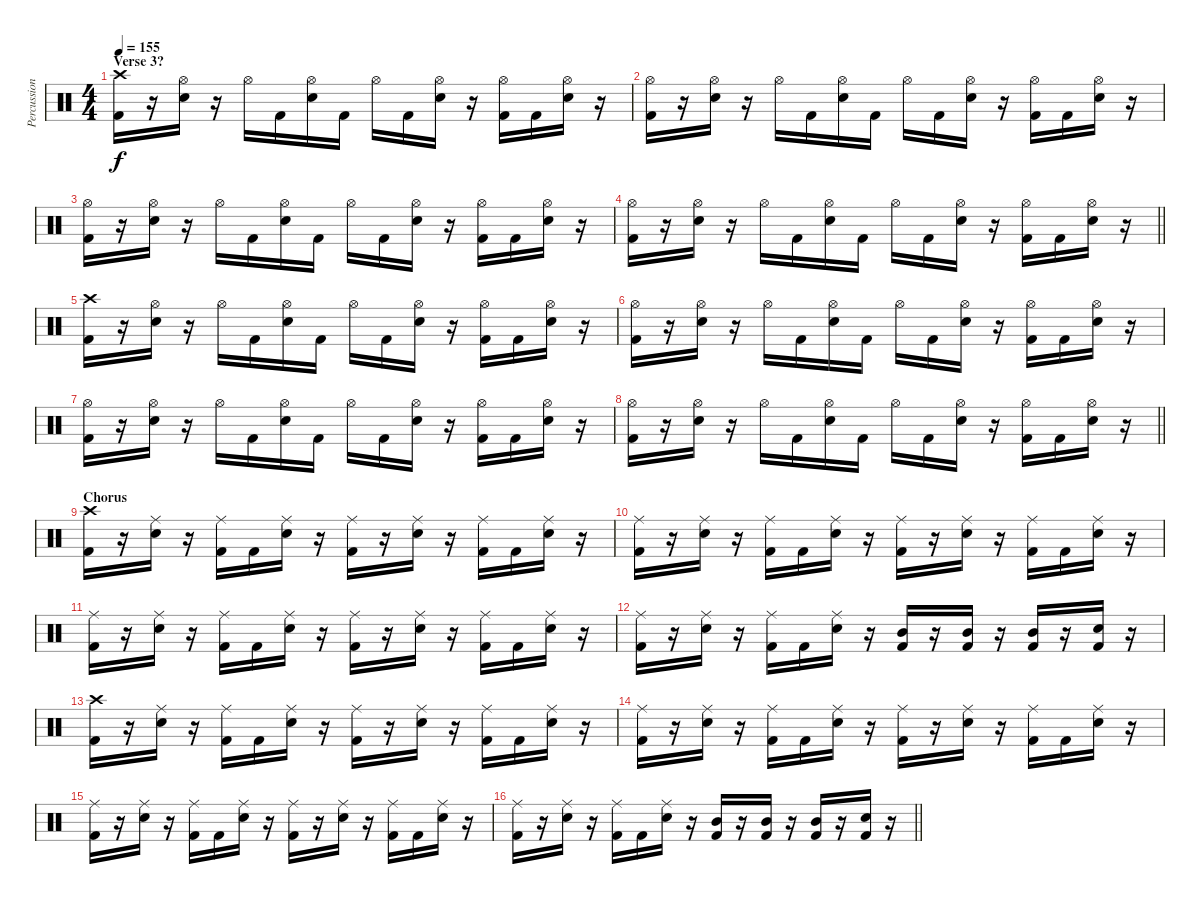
\track ("Percussion" "Percussion") {instrument percussion}
\staff {score}
\articulation defaults
\ts (4 4)
\section ("" "Verse 3?")
\tempo 155
\clef neutral
\ks c
("Crash high (hit)" "Kick (hit) 2").16{dy f} r.16 ("Hi-Hat (open)" "Electric Snare (hit)").16 r.16 "Hi-Hat (open)".16 "Kick (hit) 2".16 ("Hi-Hat (open)" "Electric Snare (hit)").16 "Kick (hit) 2".16 "Hi-Hat (open)".16 "Kick (hit) 2".16 ("Hi-Hat (open)" "Electric Snare (hit)").16 r.16 ("Hi-Hat (open)" "Kick (hit) 2").16 "Kick (hit) 2".16 ("Hi-Hat (open)" "Electric Snare (hit)").16 r.16 |
("Hi-Hat (open)" "Kick (hit) 2").16 r.16 ("Hi-Hat (open)" "Electric Snare (hit)").16 r.16 "Hi-Hat (open)".16 "Kick (hit) 2".16 ("Hi-Hat (open)" "Electric Snare (hit)").16 "Kick (hit) 2".16 "Hi-Hat (open)".16 "Kick (hit) 2".16 ("Hi-Hat (open)" "Electric Snare (hit)").16 r.16 ("Hi-Hat (open)" "Kick (hit) 2").16 "Kick (hit) 2".16 ("Hi-Hat (open)" "Electric Snare (hit)").16 r.16 |
("Hi-Hat (open)" "Kick (hit) 2").16 r.16 ("Hi-Hat (open)" "Electric Snare (hit)").16 r.16 "Hi-Hat (open)".16 "Kick (hit) 2".16 ("Hi-Hat (open)" "Electric Snare (hit)").16 "Kick (hit) 2".16 "Hi-Hat (open)".16 "Kick (hit) 2".16 ("Hi-Hat (open)" "Electric Snare (hit)").16 r.16 ("Hi-Hat (open)" "Kick (hit) 2").16 "Kick (hit) 2".16 ("Hi-Hat (open)" "Electric Snare (hit)").16 r.16 |
\barLineRight lightlight
("Hi-Hat (open)" "Kick (hit) 2").16 r.16 ("Hi-Hat (open)" "Electric Snare (hit)").16 r.16 "Hi-Hat (open)".16 "Kick (hit) 2".16 ("Hi-Hat (open)" "Electric Snare (hit)").16 "Kick (hit) 2".16 "Hi-Hat (open)".16 "Kick (hit) 2".16 ("Hi-Hat (open)" "Electric Snare (hit)").16 r.16 ("Hi-Hat (open)" "Kick (hit) 2").16 "Kick (hit) 2".16 ("Hi-Hat (open)" "Electric Snare (hit)").16 r.16 |
("Crash high (hit)" "Kick (hit) 2").16 r.16 ("Hi-Hat (open)" "Electric Snare (hit)").16 r.16 "Hi-Hat (open)".16 "Kick (hit) 2".16 ("Hi-Hat (open)" "Electric Snare (hit)").16 "Kick (hit) 2".16 "Hi-Hat (open)".16 "Kick (hit) 2".16 ("Hi-Hat (open)" "Electric Snare (hit)").16 r.16 ("Hi-Hat (open)" "Kick (hit) 2").16 "Kick (hit) 2".16 ("Hi-Hat (open)" "Electric Snare (hit)").16 r.16 |
("Hi-Hat (open)" "Kick (hit) 2").16 r.16 ("Hi-Hat (open)" "Electric Snare (hit)").16 r.16 "Hi-Hat (open)".16 "Kick (hit) 2".16 ("Hi-Hat (open)" "Electric Snare (hit)").16 "Kick (hit) 2".16 "Hi-Hat (open)".16 "Kick (hit) 2".16 ("Hi-Hat (open)" "Electric Snare (hit)").16 r.16 ("Hi-Hat (open)" "Kick (hit) 2").16 "Kick (hit) 2".16 ("Hi-Hat (open)" "Electric Snare (hit)").16 r.16 |
("Hi-Hat (open)" "Kick (hit) 2").16 r.16 ("Hi-Hat (open)" "Electric Snare (hit)").16 r.16 "Hi-Hat (open)".16 "Kick (hit) 2".16 ("Hi-Hat (open)" "Electric Snare (hit)").16 "Kick (hit) 2".16 "Hi-Hat (open)".16 "Kick (hit) 2".16 ("Hi-Hat (open)" "Electric Snare (hit)").16 r.16 ("Hi-Hat (open)" "Kick (hit) 2").16 "Kick (hit) 2".16 ("Hi-Hat (open)" "Electric Snare (hit)").16 r.16 |
\barLineRight lightlight
("Hi-Hat (open)" "Kick (hit) 2").16 r.16 ("Hi-Hat (open)" "Electric Snare (hit)").16 r.16 "Hi-Hat (open)".16 "Kick (hit) 2".16 ("Hi-Hat (open)" "Electric Snare (hit)").16 "Kick (hit) 2".16 "Hi-Hat (open)".16 "Kick (hit) 2".16 ("Hi-Hat (open)" "Electric Snare (hit)").16 r.16 ("Hi-Hat (open)" "Kick (hit) 2").16 "Kick (hit) 2".16 ("Hi-Hat (open)" "Electric Snare (hit)").16 r.16 |
\section ("" "Chorus")
("Crash high (hit)" "Kick (hit) 2").16 r.16 ("Ride (middle)" "Electric Snare (hit)").16 r.16 ("Ride (middle)" "Kick (hit) 2").16 "Kick (hit) 2".16 ("Ride (middle)" "Electric Snare (hit)").16 r.16 ("Ride (middle)" "Kick (hit) 2").16 r.16 ("Ride (middle)" "Electric Snare (hit)").16 r.16 ("Ride (middle)" "Kick (hit) 2").16 "Kick (hit) 2".16 ("Ride (middle)" "Electric Snare (hit)").16 r.16 |
("Ride (middle)" "Kick (hit) 2").16 r.16 ("Ride (middle)" "Electric Snare (hit)").16 r.16 ("Ride (middle)" "Kick (hit) 2").16 "Kick (hit) 2".16 ("Ride (middle)" "Electric Snare (hit)").16 r.16 ("Ride (middle)" "Kick (hit) 2").16 r.16 ("Ride (middle)" "Electric Snare (hit)").16 r.16 ("Ride (middle)" "Kick (hit) 2").16 "Kick (hit) 2".16 ("Ride (middle)" "Electric Snare (hit)").16 r.16 |
("Ride (middle)" "Kick (hit) 2").16 r.16 ("Ride (middle)" "Electric Snare (hit)").16 r.16 ("Ride (middle)" "Kick (hit) 2").16 "Kick (hit) 2".16 ("Ride (middle)" "Electric Snare (hit)").16 r.16 ("Ride (middle)" "Kick (hit) 2").16 r.16 ("Ride (middle)" "Electric Snare (hit)").16 r.16 ("Ride (middle)" "Kick (hit) 2").16 "Kick (hit) 2".16 ("Ride (middle)" "Electric Snare (hit)").16 r.16 |
("Ride (middle)" "Kick (hit) 2").16 r.16 ("Ride (middle)" "Electric Snare (hit)").16 r.16 ("Ride (middle)" "Kick (hit) 2").16 "Kick (hit) 2".16 ("Ride (middle)" "Electric Snare (hit)").16 r.16 ("Mid Tom (hit)" "Kick (hit) 2").16 r.16 ("Mid Tom (hit)" "Kick (hit) 2").16 r.16 ("Mid Tom (hit)" "Kick (hit) 2").16 r.16 ("Electric Snare (hit)" "Kick (hit) 2").16 r.16 |
("Crash high (hit)" "Kick (hit) 2").16 r.16 ("Ride (middle)" "Electric Snare (hit)").16 r.16 ("Ride (middle)" "Kick (hit) 2").16 "Kick (hit) 2".16 ("Ride (middle)" "Electric Snare (hit)").16 r.16 ("Ride (middle)" "Kick (hit) 2").16 r.16 ("Ride (middle)" "Electric Snare (hit)").16 r.16 ("Ride (middle)" "Kick (hit) 2").16 "Kick (hit) 2".16 ("Ride (middle)" "Electric Snare (hit)").16 r.16 |
("Ride (middle)" "Kick (hit) 2").16 r.16 ("Ride (middle)" "Electric Snare (hit)").16 r.16 ("Ride (middle)" "Kick (hit) 2").16 "Kick (hit) 2".16 ("Ride (middle)" "Electric Snare (hit)").16 r.16 ("Ride (middle)" "Kick (hit) 2").16 r.16 ("Ride (middle)" "Electric Snare (hit)").16 r.16 ("Ride (middle)" "Kick (hit) 2").16 "Kick (hit) 2".16 ("Ride (middle)" "Electric Snare (hit)").16 r.16 |
("Ride (middle)" "Kick (hit) 2").16 r.16 ("Ride (middle)" "Electric Snare (hit)").16 r.16 ("Ride (middle)" "Kick (hit) 2").16 "Kick (hit) 2".16 ("Ride (middle)" "Electric Snare (hit)").16 r.16 ("Ride (middle)" "Kick (hit) 2").16 r.16 ("Ride (middle)" "Electric Snare (hit)").16 r.16 ("Ride (middle)" "Kick (hit) 2").16 "Kick (hit) 2".16 ("Ride (middle)" "Electric Snare (hit)").16 r.16 |
\barLineRight lightlight
("Ride (middle)" "Kick (hit) 2").16 r.16 ("Ride (middle)" "Electric Snare (hit)").16 r.16 ("Ride (middle)" "Kick (hit) 2").16 "Kick (hit) 2".16 ("Ride (middle)" "Electric Snare (hit)").16 r.16 ("Mid Tom (hit)" "Kick (hit) 2").16 r.16 ("Mid Tom (hit)" "Kick (hit) 2").16 r.16 ("Mid Tom (hit)" "Kick (hit) 2").16 r.16 ("Electric Snare (hit)" "Kick (hit) 2").16 r.16
